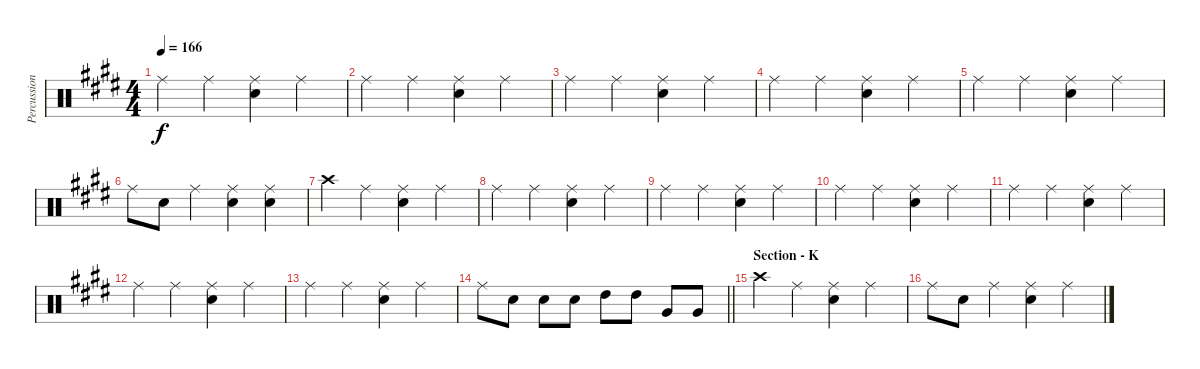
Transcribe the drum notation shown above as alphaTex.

\track ("Percussion - Other" "Percussion") {instrument percussion}
\staff {score}
\articulation defaults
\ts (4 4)
\tempo 166
\clef neutral
\ks e "Ride (middle)".4{dy f} "Ride (middle)".4
("Ride (middle)" "Snare (hit) 2").4 "Ride (middle)".4 |
"Ride (middle)".4 "Ride (middle)".4 ("Ride (middle)" "Snare (hit) 2").4 "Ride (middle)".4 |
"Ride (middle)".4 "Ride (middle)".4 ("Ride (middle)" "Snare (hit) 2").4 "Ride (middle)".4 |
"Ride (middle)".4 "Ride (middle)".4 ("Ride (middle)" "Snare (hit) 2").4 "Ride (middle)".4 |
"Ride (middle)".4 "Ride (middle)".4 ("Ride (middle)" "Snare (hit) 2").4 "Ride (middle)".4 |
"Ride (middle)".8 "Snare (hit) 2".8 "Ride (middle)".4 ("Ride (middle)" "Snare (hit) 2").4 ("Ride (middle)" "Snare (hit) 2").4 |
"Crash high (hit)".4 "Ride (middle)".4 ("Ride (middle)" "Snare (hit) 2").4 "Ride (middle)".4 |
"Ride (middle)".4 "Ride (middle)".4 ("Ride (middle)" "Snare (hit) 2").4 "Ride (middle)".4 |
"Ride (middle)".4 "Ride (middle)".4 ("Ride (middle)" "Snare (hit) 2").4 "Ride (middle)".4 |
"Ride (middle)".4 "Ride (middle)".4 ("Ride (middle)" "Snare (hit) 2").4 "Ride (middle)".4 |
"Ride (middle)".4 "Ride (middle)".4 ("Ride (middle)" "Snare (hit) 2").4 "Ride (middle)".4 |
"Ride (middle)".4 "Ride (middle)".4 ("Ride (middle)" "Snare (hit) 2").4 "Ride (middle)".4 |
"Ride (middle)".4 "Ride (middle)".4 ("Ride (middle)" "Snare (hit) 2").4 "Ride (middle)".4 |
\barLineRight lightlight "Ride (middle)".8 "Snare (hit) 2".8 "Snare (hit) 2".8 "Snare (hit) 2".8 "High Tom (hit)".8 "High Tom (hit)".8 "Very Low Tom (hit)".8 "Very Low Tom (hit)".8
|
\section ("" "Section - K")
"Crash high (hit)".4 "Ride (middle)".4 ("Ride (middle)" "Snare (hit) 2").4 "Ride (middle)".4 |
"Ride (middle)".8 "Snare (hit) 2".8 "Ride (middle)".4 ("Ride (middle)" "Snare (hit) 2").4 "Ride (middle)".4
